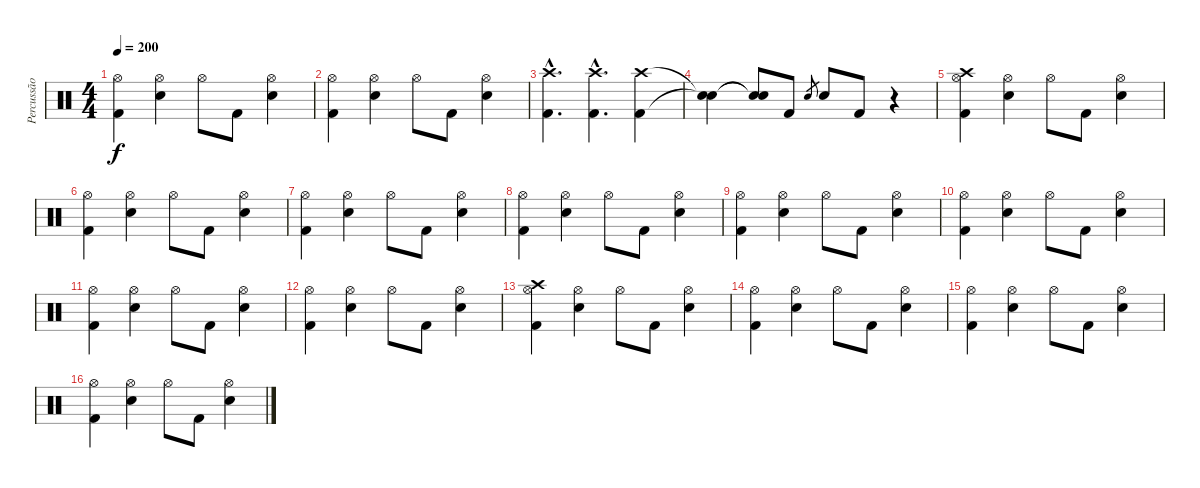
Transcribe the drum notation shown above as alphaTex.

\track ("Percussão" "Percussão") {instrument percussion}
\staff {score}
\articulation defaults
\ts (4 4)
\tempo 200
\clef neutral
\ks c
("Hi-Hat (open)" "Kick (hit) 2").4{dy f} ("Hi-Hat (open)" "Electric Snare (hit)").4 "Hi-Hat (open)".8 "Kick (hit) 2".8 ("Hi-Hat (open)" "Electric Snare (hit)").4 |
("Hi-Hat (open)" "Kick (hit) 2").4 ("Hi-Hat (open)" "Electric Snare (hit)").4 "Hi-Hat (open)".8 "Kick (hit) 2".8 ("Hi-Hat (open)" "Electric Snare (hit)").4 |
("Crash high (hit)"{hac} "Kick (hit) 2"{hac}).4{d} ("Crash high (hit)"{hac} "Kick (hit) 2"{hac}).4{d} ("Crash high (hit)" "Kick (hit) 2").4 |
("Snare (hit)"{t} "Snare (hit)"{t}).4 ("Snare (hit)"{t} "Snare (hit)"{t}).8 "Kick (hit) 2".8 "Electric Snare (hit)".8{gr} "Electric Snare (hit)".8 "Kick (hit) 2".8 r.4 |
("Hi-Hat (open)" "Crash high (hit)" "Kick (hit) 2").4 ("Hi-Hat (open)" "Electric Snare (hit)").4 "Hi-Hat (open)".8 "Kick (hit) 2".8 ("Hi-Hat (open)" "Electric Snare (hit)").4 |
("Hi-Hat (open)" "Kick (hit) 2").4 ("Hi-Hat (open)" "Electric Snare (hit)").4 "Hi-Hat (open)".8 "Kick (hit) 2".8 ("Hi-Hat (open)" "Electric Snare (hit)").4 |
("Hi-Hat (open)" "Kick (hit) 2").4 ("Hi-Hat (open)" "Electric Snare (hit)").4 "Hi-Hat (open)".8 "Kick (hit) 2".8 ("Hi-Hat (open)" "Electric Snare (hit)").4 |
("Hi-Hat (open)" "Kick (hit) 2").4 ("Hi-Hat (open)" "Electric Snare (hit)").4 "Hi-Hat (open)".8 "Kick (hit) 2".8 ("Hi-Hat (open)" "Electric Snare (hit)").4 |
("Hi-Hat (open)" "Kick (hit) 2").4 ("Hi-Hat (open)" "Electric Snare (hit)").4 "Hi-Hat (open)".8 "Kick (hit) 2".8 ("Hi-Hat (open)" "Electric Snare (hit)").4 |
("Hi-Hat (open)" "Kick (hit) 2").4 ("Hi-Hat (open)" "Electric Snare (hit)").4 "Hi-Hat (open)".8 "Kick (hit) 2".8 ("Hi-Hat (open)" "Electric Snare (hit)").4 |
("Hi-Hat (open)" "Kick (hit) 2").4 ("Hi-Hat (open)" "Electric Snare (hit)").4 "Hi-Hat (open)".8 "Kick (hit) 2".8 ("Hi-Hat (open)" "Electric Snare (hit)").4 |
("Hi-Hat (open)" "Kick (hit) 2").4 ("Hi-Hat (open)" "Electric Snare (hit)").4 "Hi-Hat (open)".8 "Kick (hit) 2".8 ("Hi-Hat (open)" "Electric Snare (hit)").4 |
("Hi-Hat (open)" "Crash high (hit)" "Kick (hit) 2").4 ("Hi-Hat (open)" "Electric Snare (hit)").4 "Hi-Hat (open)".8 "Kick (hit) 2".8 ("Hi-Hat (open)" "Electric Snare (hit)").4 |
("Hi-Hat (open)" "Kick (hit) 2").4 ("Hi-Hat (open)" "Electric Snare (hit)").4 "Hi-Hat (open)".8 "Kick (hit) 2".8 ("Hi-Hat (open)" "Electric Snare (hit)").4 |
("Hi-Hat (open)" "Kick (hit) 2").4 ("Hi-Hat (open)" "Electric Snare (hit)").4 "Hi-Hat (open)".8 "Kick (hit) 2".8 ("Hi-Hat (open)" "Electric Snare (hit)").4 |
("Hi-Hat (open)" "Kick (hit) 2").4 ("Hi-Hat (open)" "Electric Snare (hit)").4 "Hi-Hat (open)".8 "Kick (hit) 2".8 ("Hi-Hat (open)" "Electric Snare (hit)").4
